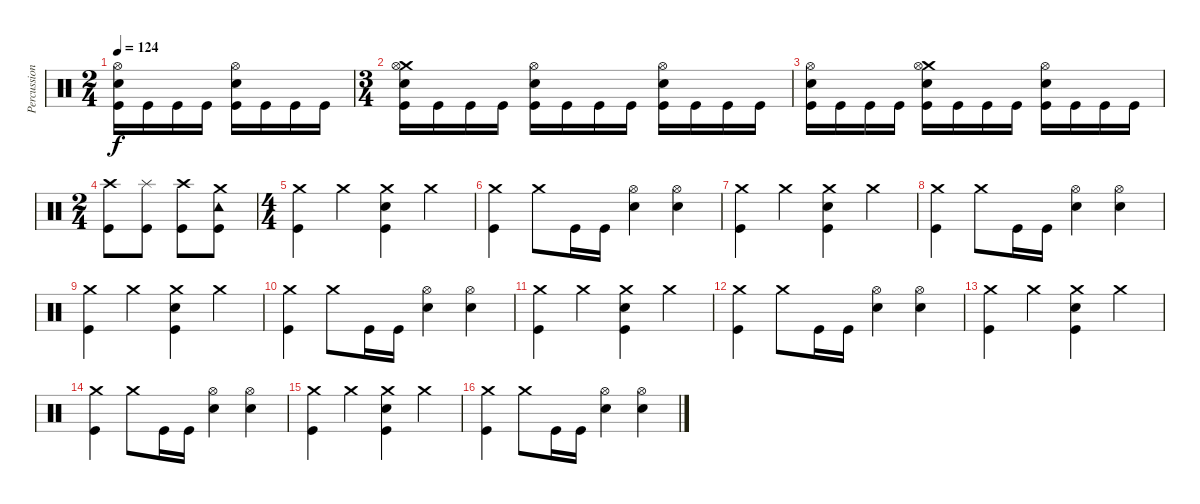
\track ("Percussion" "Percussion") {instrument percussion}
\staff {score}
\articulation defaults
\ts (2 4)
\tempo 124
\clef neutral
\ks c
("Hi-Hat (open)" "Electric Snare (hit)" "Kick (hit)").16{dy f} "Kick (hit)".16 "Kick (hit)".16 "Kick (hit)".16 ("Hi-Hat (open)" "Electric Snare (hit)" "Kick (hit)").16 "Kick (hit)".16 "Kick (hit)".16 "Kick (hit)".16 |
\ts (3 4)
("Crash medium (hit)" "Hi-Hat (open)" "Electric Snare (hit)" "Kick (hit)").16 "Kick (hit)".16 "Kick (hit)".16 "Kick (hit)".16 ("Hi-Hat (open)" "Electric Snare (hit)" "Kick (hit)").16 "Kick (hit)".16 "Kick (hit)".16 "Kick (hit)".16 ("Hi-Hat (open)" "Electric Snare (hit)" "Kick (hit)").16 "Kick (hit)".16 "Kick (hit)".16 "Kick (hit)".16 |
("Hi-Hat (open)" "Electric Snare (hit)" "Kick (hit)").16 "Kick (hit)".16 "Kick (hit)".16 "Kick (hit)".16 ("Crash medium (hit)" "Hi-Hat (open)" "Electric Snare (hit)" "Kick (hit)").16 "Kick (hit)".16 "Kick (hit)".16 "Kick (hit)".16 ("Hi-Hat (open)" "Electric Snare (hit)" "Kick (hit)").16 "Kick (hit)".16 "Kick (hit)".16 "Kick (hit)".16 |
\ts (2 4)
("Crash high (hit)" "Kick (hit)").8 ("Splash (hit)" "Kick (hit)").8 ("Crash high (hit)" "Kick (hit)").8 ("Tambourine (hit)" "Crash medium (hit)" "Kick (hit)").8 |
\ts (4 4)
("Crash medium (hit)" "Kick (hit)").4 "Crash medium (hit)".4 ("Kick (hit)" "Crash medium (hit)" "Electric Snare (hit)").4 "Crash medium (hit)".4 |
("Crash medium (hit)" "Kick (hit)").4 "Crash medium (hit)".8 "Kick (hit)".16 "Kick (hit)".16 ("Hi-Hat (open)" "Electric Snare (hit)").4 ("Hi-Hat (open)" "Electric Snare (hit)").4 |
("Crash medium (hit)" "Kick (hit)").4 "Crash medium (hit)".4 ("Kick (hit)" "Crash medium (hit)" "Electric Snare (hit)").4 "Crash medium (hit)".4 |
("Crash medium (hit)" "Kick (hit)").4 "Crash medium (hit)".8 "Kick (hit)".16 "Kick (hit)".16 ("Hi-Hat (open)" "Electric Snare (hit)").4 ("Hi-Hat (open)" "Electric Snare (hit)").4 |
("Crash medium (hit)" "Kick (hit)").4 "Crash medium (hit)".4 ("Kick (hit)" "Crash medium (hit)" "Electric Snare (hit)").4 "Crash medium (hit)".4 |
("Crash medium (hit)" "Kick (hit)").4 "Crash medium (hit)".8 "Kick (hit)".16 "Kick (hit)".16 ("Hi-Hat (open)" "Electric Snare (hit)").4 ("Hi-Hat (open)" "Electric Snare (hit)").4 |
("Crash medium (hit)" "Kick (hit)").4 "Crash medium (hit)".4 ("Kick (hit)" "Crash medium (hit)" "Electric Snare (hit)").4 "Crash medium (hit)".4 |
("Crash medium (hit)" "Kick (hit)").4 "Crash medium (hit)".8 "Kick (hit)".16 "Kick (hit)".16 ("Hi-Hat (open)" "Electric Snare (hit)").4 ("Hi-Hat (open)" "Electric Snare (hit)").4 |
("Crash medium (hit)" "Kick (hit)").4 "Crash medium (hit)".4 ("Kick (hit)" "Crash medium (hit)" "Electric Snare (hit)").4 "Crash medium (hit)".4 |
("Crash medium (hit)" "Kick (hit)").4 "Crash medium (hit)".8 "Kick (hit)".16 "Kick (hit)".16 ("Hi-Hat (open)" "Electric Snare (hit)").4 ("Hi-Hat (open)" "Electric Snare (hit)").4 |
("Crash medium (hit)" "Kick (hit)").4 "Crash medium (hit)".4 ("Kick (hit)" "Crash medium (hit)" "Electric Snare (hit)").4 "Crash medium (hit)".4 |
("Crash medium (hit)" "Kick (hit)").4 "Crash medium (hit)".8 "Kick (hit)".16 "Kick (hit)".16 ("Hi-Hat (open)" "Electric Snare (hit)").4 ("Hi-Hat (open)" "Electric Snare (hit)").4
